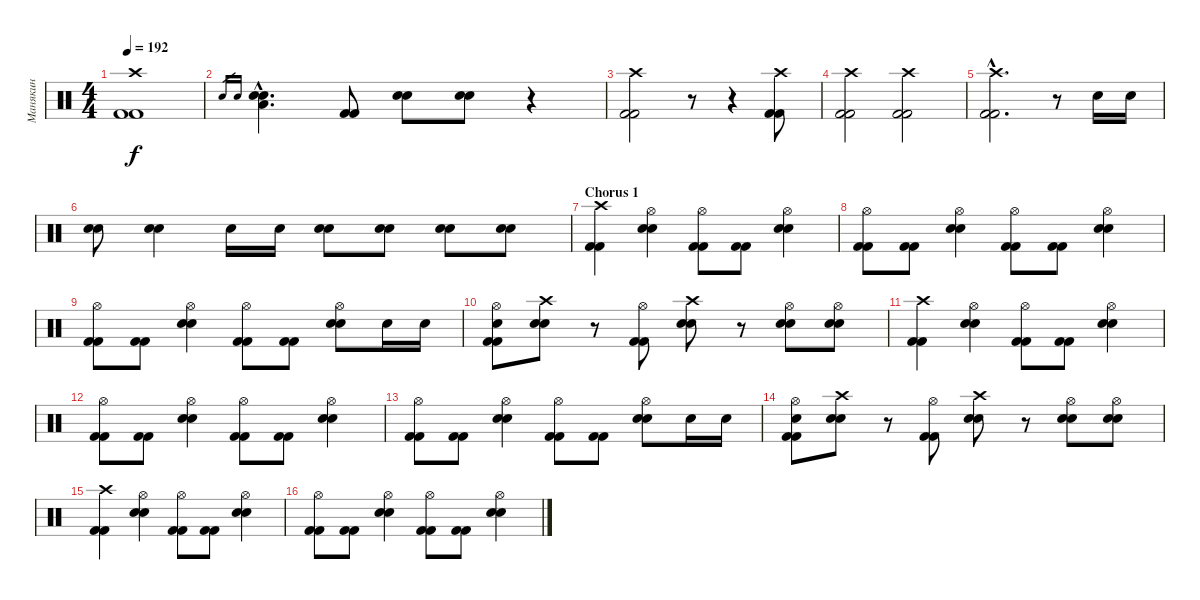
\track ("Манякин" "Манякин") {instrument percussion}
\staff {score}
\articulation defaults
\ts (4 4)
\tempo 192
\clef neutral
\ks c
("Crash high (hit)" "Kick (hit) 2" "Kick (hit) 2").1{dy f} |
"Electric Snare (hit)".16{gr} "Electric Snare (hit)".16{gr} ("Electric Snare (hit)"{hac} "Electric Snare (hit)"{hac} "Low Tom (hit)"{hac}).4{d} ("Kick (hit) 2" "Kick (hit) 2").8 ("Electric Snare (hit)" "Electric Snare (hit)").8 ("Electric Snare (hit)" "Electric Snare (hit)").8 r.4 |
("Crash high (hit)" "Kick (hit) 2" "Kick (hit) 2").2 r.8 r.4 ("Crash high (hit)" "Kick (hit) 2" "Kick (hit) 2").8 |
("Crash high (hit)" "Kick (hit) 2" "Kick (hit) 2").2 ("Crash high (hit)" "Kick (hit) 2" "Kick (hit) 2").2 |
("Crash high (hit)"{hac} "Kick (hit) 2"{hac} "Kick (hit) 2"{hac}).2{d} r.8 "Electric Snare (hit)".16 "Electric Snare (hit)".16 |
("Electric Snare (hit)" "Electric Snare (hit)").8 ("Electric Snare (hit)" "Electric Snare (hit)").4 "Electric Snare (hit)".16 "Electric Snare (hit)".16 ("Electric Snare (hit)" "Electric Snare (hit)").8 ("Electric Snare (hit)" "Electric Snare (hit)").8 ("Electric Snare (hit)" "Electric Snare (hit)").8 ("Electric Snare (hit)" "Electric Snare (hit)").8 |
\section ("" "Chorus 1")
("Crash high (hit)" "Kick (hit) 2" "Kick (hit) 2").4 ("Hi-Hat (open)" "Electric Snare (hit)" "Electric Snare (hit)").4 ("Hi-Hat (open)" "Kick (hit) 2" "Kick (hit) 2").8 ("Kick (hit) 2" "Kick (hit) 2").8 ("Hi-Hat (open)" "Electric Snare (hit)" "Electric Snare (hit)").4 |
("Hi-Hat (open)" "Kick (hit) 2" "Kick (hit) 2").8 ("Kick (hit) 2" "Kick (hit) 2").8 ("Hi-Hat (open)" "Electric Snare (hit)" "Electric Snare (hit)").4 ("Hi-Hat (open)" "Kick (hit) 2" "Kick (hit) 2").8 ("Kick (hit) 2" "Kick (hit) 2").8 ("Hi-Hat (open)" "Electric Snare (hit)" "Electric Snare (hit)").4 |
("Hi-Hat (open)" "Kick (hit) 2" "Kick (hit) 2").8 ("Kick (hit) 2" "Kick (hit) 2").8 ("Hi-Hat (open)" "Electric Snare (hit)" "Electric Snare (hit)").4 ("Hi-Hat (open)" "Kick (hit) 2" "Kick (hit) 2").8 ("Kick (hit) 2" "Kick (hit) 2").8 ("Hi-Hat (open)" "Electric Snare (hit)" "Electric Snare (hit)").8 "Electric Snare (hit)".16 "Electric Snare (hit)".16 |
("Hi-Hat (open)" "Electric Snare (hit)" "Kick (hit) 2" "Kick (hit) 2").8 ("Crash high (hit)" "Electric Snare (hit)" "Electric Snare (hit)").8 r.8 ("Hi-Hat (open)" "Kick (hit) 2" "Kick (hit) 2").8 ("Crash high (hit)" "Electric Snare (hit)" "Electric Snare (hit)").8 r.8 ("Hi-Hat (open)" "Electric Snare (hit)" "Electric Snare (hit)").8 ("Hi-Hat (open)" "Electric Snare (hit)" "Electric Snare (hit)").8 |
("Crash high (hit)" "Kick (hit) 2" "Kick (hit) 2").4 ("Hi-Hat (open)" "Electric Snare (hit)" "Electric Snare (hit)").4 ("Hi-Hat (open)" "Kick (hit) 2" "Kick (hit) 2").8 ("Kick (hit) 2" "Kick (hit) 2").8 ("Hi-Hat (open)" "Electric Snare (hit)" "Electric Snare (hit)").4 |
("Hi-Hat (open)" "Kick (hit) 2" "Kick (hit) 2").8 ("Kick (hit) 2" "Kick (hit) 2").8 ("Hi-Hat (open)" "Electric Snare (hit)" "Electric Snare (hit)").4 ("Hi-Hat (open)" "Kick (hit) 2" "Kick (hit) 2").8 ("Kick (hit) 2" "Kick (hit) 2").8 ("Hi-Hat (open)" "Electric Snare (hit)" "Electric Snare (hit)").4 |
("Hi-Hat (open)" "Kick (hit) 2" "Kick (hit) 2").8 ("Kick (hit) 2" "Kick (hit) 2").8 ("Hi-Hat (open)" "Electric Snare (hit)" "Electric Snare (hit)").4 ("Hi-Hat (open)" "Kick (hit) 2" "Kick (hit) 2").8 ("Kick (hit) 2" "Kick (hit) 2").8 ("Hi-Hat (open)" "Electric Snare (hit)" "Electric Snare (hit)").8 "Electric Snare (hit)".16 "Electric Snare (hit)".16 |
("Hi-Hat (open)" "Electric Snare (hit)" "Kick (hit) 2" "Kick (hit) 2").8 ("Crash high (hit)" "Electric Snare (hit)" "Electric Snare (hit)").8 r.8 ("Hi-Hat (open)" "Kick (hit) 2" "Kick (hit) 2").8 ("Crash high (hit)" "Electric Snare (hit)" "Electric Snare (hit)").8 r.8 ("Hi-Hat (open)" "Electric Snare (hit)" "Electric Snare (hit)").8 ("Hi-Hat (open)" "Electric Snare (hit)" "Electric Snare (hit)").8 |
("Crash high (hit)" "Kick (hit) 2" "Kick (hit) 2").4 ("Hi-Hat (open)" "Electric Snare (hit)" "Electric Snare (hit)").4 ("Hi-Hat (open)" "Kick (hit) 2" "Kick (hit) 2").8 ("Kick (hit) 2" "Kick (hit) 2").8 ("Hi-Hat (open)" "Electric Snare (hit)" "Electric Snare (hit)").4 |
("Hi-Hat (open)" "Kick (hit) 2" "Kick (hit) 2").8 ("Kick (hit) 2" "Kick (hit) 2").8 ("Hi-Hat (open)" "Electric Snare (hit)" "Electric Snare (hit)").4 ("Hi-Hat (open)" "Kick (hit) 2" "Kick (hit) 2").8 ("Kick (hit) 2" "Kick (hit) 2").8 ("Hi-Hat (open)" "Electric Snare (hit)" "Electric Snare (hit)").4
